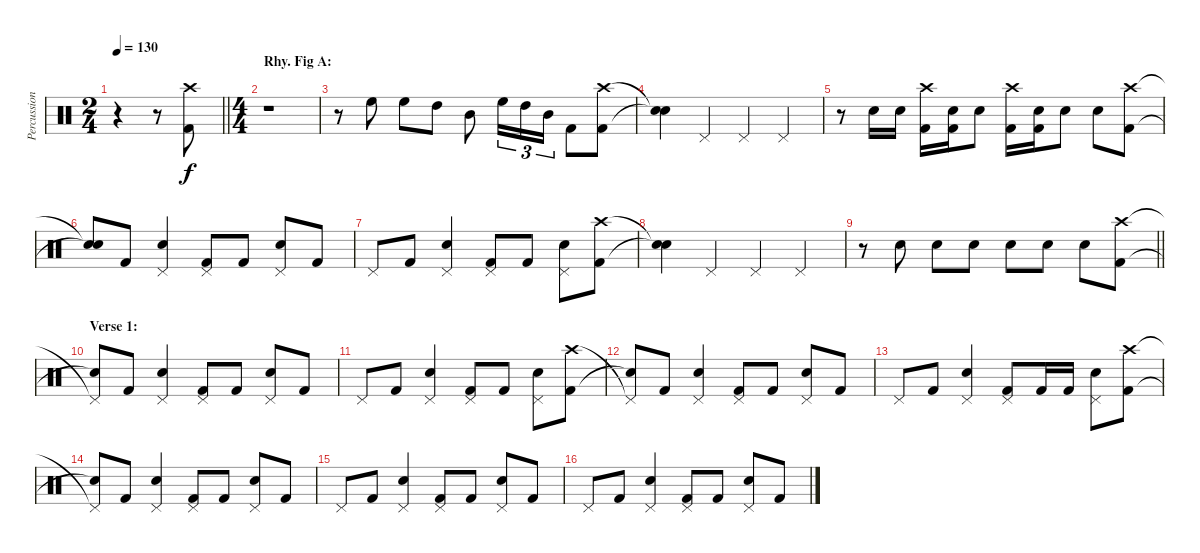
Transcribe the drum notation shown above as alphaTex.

\track ("Percussion" "Percussion") {instrument percussion}
\staff {score}
\articulation defaults
\ts (2 4)
\tempo 130
\clef neutral
\barLineRight lightlight
\ks c
r.4{dy f} r.8 ("Crash high (hit)" "Kick (hit) 2").8 |
\ts (4 4)
\section ("" "Rhy. Fig A:")
r.1 |
r.8 "High Floor Tom (hit)".8 "High Floor Tom (hit)".8 "High Tom (hit)".8 "Mid Tom (hit)".8 "High Floor Tom (hit)".16{tu (3 2)} "High Tom (hit)".16{tu (3 2)} "Mid Tom (hit)".16{tu (3 2)} "Kick (hit) 2".8 ("Crash high (hit)" "Kick (hit) 2").8 |
("Snare (hit)"{t} "Snare (hit)"{t}).4 "Pedal Hi-Hat (hit)".4 "Pedal Hi-Hat (hit)".4 "Pedal Hi-Hat (hit)".4 |
r.8 "Electric Snare (hit)".16 "Electric Snare (hit)".16 ("Crash high (hit)" "Kick (hit) 2").16 ("Electric Snare (hit)" "Kick (hit) 2").16 "Electric Snare (hit)".8 ("Crash high (hit)" "Kick (hit) 2").16 ("Electric Snare (hit)" "Kick (hit) 2").16 "Electric Snare (hit)".8 "Electric Snare (hit)".8 ("Crash high (hit)" "Kick (hit) 2").8 |
("Snare (hit)"{t} "Snare (hit)"{t}).8 "Kick (hit) 2".8 ("Pedal Hi-Hat (hit)" "Electric Snare (hit)").4 ("Pedal Hi-Hat (hit)" "Kick (hit) 2").8 "Kick (hit) 2".8 ("Pedal Hi-Hat (hit)" "Electric Snare (hit)").8 "Kick (hit) 2".8 |
"Pedal Hi-Hat (hit)".8 "Kick (hit) 2".8 ("Pedal Hi-Hat (hit)" "Electric Snare (hit)").4 ("Pedal Hi-Hat (hit)" "Kick (hit) 2").8 "Kick (hit) 2".8 ("Pedal Hi-Hat (hit)" "Electric Snare (hit)").8 ("Crash high (hit)" "Kick (hit) 2").8 |
("Snare (hit)"{t} "Snare (hit)"{t}).4 "Pedal Hi-Hat (hit)".4 "Pedal Hi-Hat (hit)".4 "Pedal Hi-Hat (hit)".4 |
\barLineRight lightlight
r.8 "Electric Snare (hit)".8 "Electric Snare (hit)".8 "Electric Snare (hit)".8 "Electric Snare (hit)".8 "Electric Snare (hit)".8 "Electric Snare (hit)".8 ("Crash high (hit)" "Kick (hit) 2").8 |
\section ("" "Verse 1:")
("Pedal Hi-Hat (hit)"{t} "Snare (hit)"{t}).8 "Kick (hit) 2".8 ("Pedal Hi-Hat (hit)" "Electric Snare (hit)").4 ("Pedal Hi-Hat (hit)" "Kick (hit) 2").8 "Kick (hit) 2".8 ("Pedal Hi-Hat (hit)" "Electric Snare (hit)").8 "Kick (hit) 2".8 |
"Pedal Hi-Hat (hit)".8 "Kick (hit) 2".8 ("Pedal Hi-Hat (hit)" "Electric Snare (hit)").4 ("Pedal Hi-Hat (hit)" "Kick (hit) 2").8 "Kick (hit) 2".8 ("Pedal Hi-Hat (hit)" "Electric Snare (hit)").8 ("Crash high (hit)" "Kick (hit) 2").8 |
("Pedal Hi-Hat (hit)"{t} "Snare (hit)"{t}).8 "Kick (hit) 2".8 ("Pedal Hi-Hat (hit)" "Electric Snare (hit)").4 ("Pedal Hi-Hat (hit)" "Kick (hit) 2").8 "Kick (hit) 2".8 ("Pedal Hi-Hat (hit)" "Electric Snare (hit)").8 "Kick (hit) 2".8 |
"Pedal Hi-Hat (hit)".8 "Kick (hit) 2".8 ("Pedal Hi-Hat (hit)" "Electric Snare (hit)").4 ("Pedal Hi-Hat (hit)" "Kick (hit) 2").8 "Kick (hit) 2".16 "Kick (hit) 2".16 ("Pedal Hi-Hat (hit)" "Electric Snare (hit)").8 ("Crash high (hit)" "Kick (hit) 2").8 |
("Pedal Hi-Hat (hit)"{t} "Snare (hit)"{t}).8 "Kick (hit) 2".8 ("Pedal Hi-Hat (hit)" "Electric Snare (hit)").4 ("Pedal Hi-Hat (hit)" "Kick (hit) 2").8 "Kick (hit) 2".8 ("Pedal Hi-Hat (hit)" "Electric Snare (hit)").8 "Kick (hit) 2".8 |
"Pedal Hi-Hat (hit)".8 "Kick (hit) 2".8 ("Pedal Hi-Hat (hit)" "Electric Snare (hit)").4 ("Pedal Hi-Hat (hit)" "Kick (hit) 2").8 "Kick (hit) 2".8 ("Pedal Hi-Hat (hit)" "Electric Snare (hit)").8 "Kick (hit) 2".8 |
"Pedal Hi-Hat (hit)".8 "Kick (hit) 2".8 ("Pedal Hi-Hat (hit)" "Electric Snare (hit)").4 ("Pedal Hi-Hat (hit)" "Kick (hit) 2").8 "Kick (hit) 2".8 ("Pedal Hi-Hat (hit)" "Electric Snare (hit)").8 "Kick (hit) 2".8
